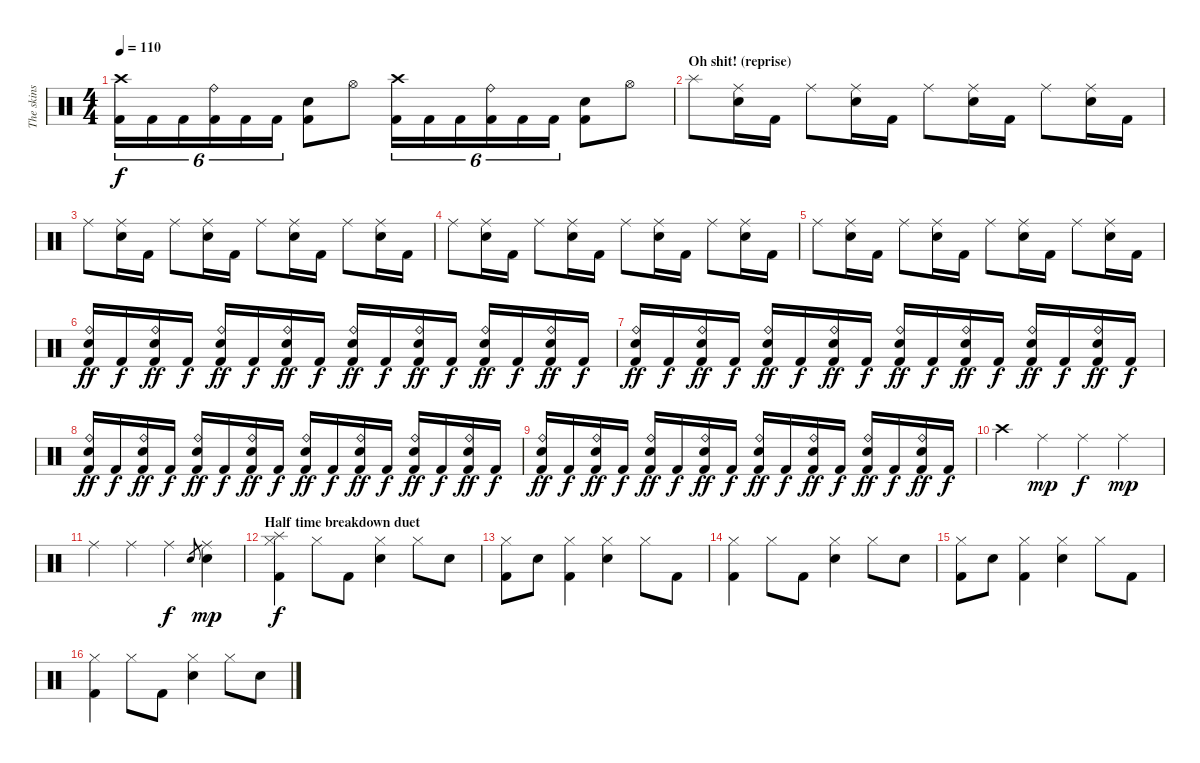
\track ("The skins" "The skins") {instrument percussion}
\staff {score}
\articulation defaults
\ts (4 4)
\tempo 110
\clef neutral
\ks c
("Crash high (hit)" "Kick (hit) 2").16{tu (6 4) dy f} "Kick (hit) 2".16{tu (6 4)} "Kick (hit) 2".16{tu (6 4)} ("Ride (bell)" "Kick (hit) 2").16{tu (6 4)} "Kick (hit) 2".16{tu (6 4)} "Kick (hit) 2".16{tu (6 4)} ("Electric Snare (hit)" "Kick (hit) 2").8 "Hi-Hat (open)".8 ("Crash high (hit)" "Kick (hit) 2").16{tu (6 4)} "Kick (hit) 2".16{tu (6 4)} "Kick (hit) 2".16{tu (6 4)} ("Ride (bell)" "Kick (hit) 2").16{tu (6 4)} "Kick (hit) 2".16{tu (6 4)} "Kick (hit) 2".16{tu (6 4)} ("Electric Snare (hit)" "Kick (hit) 2").8 "Hi-Hat (open)".8 |
\section ("" "Oh shit! (reprise)")
"Splash (hit)".8 ("Ride (middle)" "Electric Snare (hit)").16 "Kick (hit) 2".16 "Ride (middle)".8 ("Ride (middle)" "Electric Snare (hit)").16 "Kick (hit) 2".16 "Ride (middle)".8 ("Ride (middle)" "Electric Snare (hit)").16 "Kick (hit) 2".16 "Ride (middle)".8 ("Ride (middle)" "Electric Snare (hit)").16 "Kick (hit) 2".16 |
"Ride (middle)".8 ("Ride (middle)" "Electric Snare (hit)").16 "Kick (hit) 2".16 "Ride (middle)".8 ("Ride (middle)" "Electric Snare (hit)").16 "Kick (hit) 2".16 "Ride (middle)".8 ("Ride (middle)" "Electric Snare (hit)").16 "Kick (hit) 2".16 "Ride (middle)".8 ("Ride (middle)" "Electric Snare (hit)").16 "Kick (hit) 2".16 |
"Ride (middle)".8 ("Ride (middle)" "Electric Snare (hit)").16 "Kick (hit) 2".16 "Ride (middle)".8 ("Ride (middle)" "Electric Snare (hit)").16 "Kick (hit) 2".16 "Ride (middle)".8 ("Ride (middle)" "Electric Snare (hit)").16 "Kick (hit) 2".16 "Ride (middle)".8 ("Ride (middle)" "Electric Snare (hit)").16 "Kick (hit) 2".16 |
"Ride (middle)".8 ("Ride (middle)" "Electric Snare (hit)").16 "Kick (hit) 2".16 "Ride (middle)".8 ("Ride (middle)" "Electric Snare (hit)").16 "Kick (hit) 2".16 "Ride (middle)".8 ("Ride (middle)" "Electric Snare (hit)").16 "Kick (hit) 2".16 "Ride (middle)".8 ("Ride (middle)" "Electric Snare (hit)").16 "Kick (hit) 2".16 |
("Ride (bell)" "Electric Snare (hit)" "Kick (hit) 2").16{dy ff} "Kick (hit) 2".16{dy f} ("Ride (bell)" "Electric Snare (hit)" "Kick (hit) 2").16{dy ff} "Kick (hit) 2".16{dy f} ("Ride (bell)" "Electric Snare (hit)" "Kick (hit) 2").16{dy ff} "Kick (hit) 2".16{dy f} ("Ride (bell)" "Electric Snare (hit)" "Kick (hit) 2").16{dy ff} "Kick (hit) 2".16{dy f} ("Ride (bell)" "Electric Snare (hit)" "Kick (hit) 2").16{dy ff} "Kick (hit) 2".16{dy f} ("Ride (bell)" "Electric Snare (hit)" "Kick (hit) 2").16{dy ff} "Kick (hit) 2".16{dy f} ("Ride (bell)" "Electric Snare (hit)" "Kick (hit) 2").16{dy ff} "Kick (hit) 2".16{dy f} ("Ride (bell)" "Electric Snare (hit)" "Kick (hit) 2").16{dy ff} "Kick (hit) 2".16{dy f} |
("Ride (bell)" "Electric Snare (hit)" "Kick (hit) 2").16{dy ff} "Kick (hit) 2".16{dy f} ("Ride (bell)" "Electric Snare (hit)" "Kick (hit) 2").16{dy ff} "Kick (hit) 2".16{dy f} ("Ride (bell)" "Electric Snare (hit)" "Kick (hit) 2").16{dy ff} "Kick (hit) 2".16{dy f} ("Ride (bell)" "Electric Snare (hit)" "Kick (hit) 2").16{dy ff} "Kick (hit) 2".16{dy f} ("Ride (bell)" "Electric Snare (hit)" "Kick (hit) 2").16{dy ff} "Kick (hit) 2".16{dy f} ("Ride (bell)" "Electric Snare (hit)" "Kick (hit) 2").16{dy ff} "Kick (hit) 2".16{dy f} ("Ride (bell)" "Electric Snare (hit)" "Kick (hit) 2").16{dy ff} "Kick (hit) 2".16{dy f} ("Ride (bell)" "Electric Snare (hit)" "Kick (hit) 2").16{dy ff} "Kick (hit) 2".16{dy f} |
("Ride (bell)" "Electric Snare (hit)" "Kick (hit) 2").16{dy ff} "Kick (hit) 2".16{dy f} ("Ride (bell)" "Electric Snare (hit)" "Kick (hit) 2").16{dy ff} "Kick (hit) 2".16{dy f} ("Ride (bell)" "Electric Snare (hit)" "Kick (hit) 2").16{dy ff} "Kick (hit) 2".16{dy f} ("Ride (bell)" "Electric Snare (hit)" "Kick (hit) 2").16{dy ff} "Kick (hit) 2".16{dy f} ("Ride (bell)" "Electric Snare (hit)" "Kick (hit) 2").16{dy ff} "Kick (hit) 2".16{dy f} ("Ride (bell)" "Electric Snare (hit)" "Kick (hit) 2").16{dy ff} "Kick (hit) 2".16{dy f} ("Ride (bell)" "Electric Snare (hit)" "Kick (hit) 2").16{dy ff} "Kick (hit) 2".16{dy f} ("Ride (bell)" "Electric Snare (hit)" "Kick (hit) 2").16{dy ff} "Kick (hit) 2".16{dy f} |
("Ride (bell)" "Electric Snare (hit)" "Kick (hit) 2").16{dy ff} "Kick (hit) 2".16{dy f} ("Ride (bell)" "Electric Snare (hit)" "Kick (hit) 2").16{dy ff} "Kick (hit) 2".16{dy f} ("Ride (bell)" "Electric Snare (hit)" "Kick (hit) 2").16{dy ff} "Kick (hit) 2".16{dy f} ("Ride (bell)" "Electric Snare (hit)" "Kick (hit) 2").16{dy ff} "Kick (hit) 2".16{dy f} ("Ride (bell)" "Electric Snare (hit)" "Kick (hit) 2").16{dy ff} "Kick (hit) 2".16{dy f} ("Ride (bell)" "Electric Snare (hit)" "Kick (hit) 2").16{dy ff} "Kick (hit) 2".16{dy f} ("Ride (bell)" "Electric Snare (hit)" "Kick (hit) 2").16{dy ff} "Kick (hit) 2".16{dy f} ("Ride (bell)" "Electric Snare (hit)" "Kick (hit) 2").16{dy ff} "Kick (hit) 2".16{dy f} |
"Crash high (hit)".4 "Ride (middle)".4{dy mp} "Ride (middle)".4{dy f} "Ride (middle)".4{dy mp} |
"Ride (middle)".4 "Ride (middle)".4 "Ride (middle)".4{dy f} "Electric Snare (hit)".8{gr} ("Ride (middle)" "Electric Snare (hit)").4{dy mp} |
\section ("" "Half time breakdown duet")
("Splash (hit)" "Hi-Hat (closed)" "Kick (hit) 2").4{dy f} "Hi-Hat (closed)".8 "Kick (hit) 2".8 ("Hi-Hat (closed)" "Electric Snare (hit)").4 "Hi-Hat (closed)".8 "Electric Snare (hit)".8 |
("Hi-Hat (closed)" "Kick (hit) 2").8 "Electric Snare (hit)".8 ("Hi-Hat (closed)" "Kick (hit) 2").4 ("Hi-Hat (closed)" "Electric Snare (hit)").4 "Hi-Hat (closed)".8 "Kick (hit) 2".8 |
("Hi-Hat (closed)" "Kick (hit) 2").4 "Hi-Hat (closed)".8 "Kick (hit) 2".8 ("Hi-Hat (closed)" "Electric Snare (hit)").4 "Hi-Hat (closed)".8 "Electric Snare (hit)".8 |
("Hi-Hat (closed)" "Kick (hit) 2").8 "Electric Snare (hit)".8 ("Hi-Hat (closed)" "Kick (hit) 2").4 ("Hi-Hat (closed)" "Electric Snare (hit)").4 "Hi-Hat (closed)".8 "Kick (hit) 2".8 |
("Hi-Hat (closed)" "Kick (hit) 2").4 "Hi-Hat (closed)".8 "Kick (hit) 2".8 ("Hi-Hat (closed)" "Electric Snare (hit)").4 "Hi-Hat (closed)".8 "Electric Snare (hit)".8
